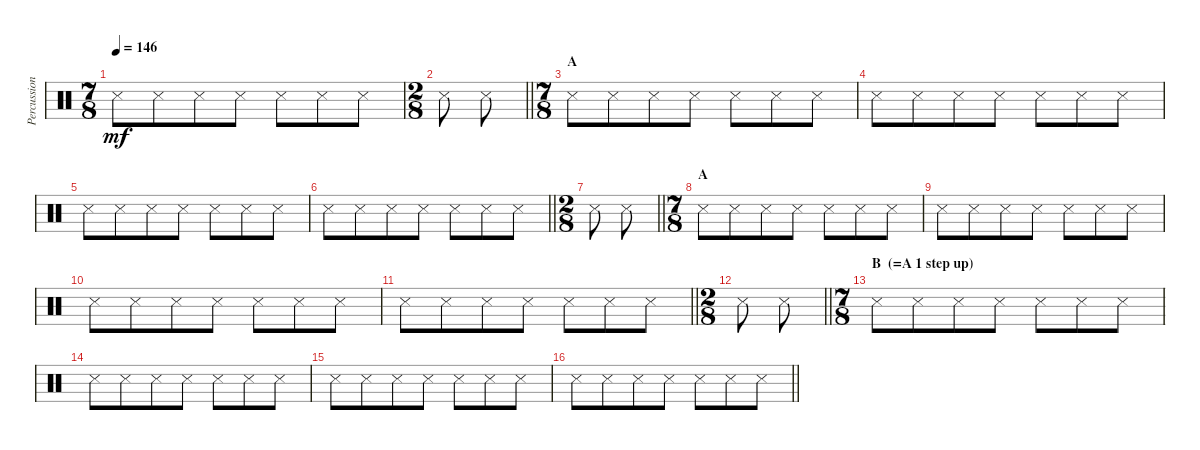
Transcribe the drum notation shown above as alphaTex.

\track ("Percussion" "Percussion") {instrument percussion}
\staff {score}
\articulation defaults
\ts (7 8)
\tempo 146
\clef neutral
\ks c "Metronome (hit)".8{dy mf} "Metronome (hit)".8 "Metronome (hit)".8 "Metronome (hit)".8 "Metronome (hit)".8 "Metronome (hit)".8 "Metronome (hit)".8
|
\ts (2 8)
\barLineRight lightlight "Metronome (hit)".8 "Metronome (hit)".8
|
\ts (7 8)
\section ("" "A")
"Metronome (hit)".8 "Metronome (hit)".8 "Metronome (hit)".8 "Metronome (hit)".8 "Metronome (hit)".8 "Metronome (hit)".8 "Metronome (hit)".8 |
"Metronome (hit)".8 "Metronome (hit)".8 "Metronome (hit)".8 "Metronome (hit)".8 "Metronome (hit)".8 "Metronome (hit)".8 "Metronome (hit)".8 |
"Metronome (hit)".8 "Metronome (hit)".8 "Metronome (hit)".8 "Metronome (hit)".8 "Metronome (hit)".8 "Metronome (hit)".8 "Metronome (hit)".8 |
\barLineRight lightlight "Metronome (hit)".8 "Metronome (hit)".8 "Metronome (hit)".8 "Metronome (hit)".8 "Metronome (hit)".8 "Metronome (hit)".8 "Metronome (hit)".8
|
\ts (2 8)
\barLineRight lightlight "Metronome (hit)".8 "Metronome (hit)".8
|
\ts (7 8)
\section ("" "A")
"Metronome (hit)".8 "Metronome (hit)".8 "Metronome (hit)".8 "Metronome (hit)".8 "Metronome (hit)".8 "Metronome (hit)".8 "Metronome (hit)".8 |
"Metronome (hit)".8 "Metronome (hit)".8 "Metronome (hit)".8 "Metronome (hit)".8 "Metronome (hit)".8 "Metronome (hit)".8 "Metronome (hit)".8 |
"Metronome (hit)".8 "Metronome (hit)".8 "Metronome (hit)".8 "Metronome (hit)".8 "Metronome (hit)".8 "Metronome (hit)".8 "Metronome (hit)".8 |
\barLineRight lightlight "Metronome (hit)".8 "Metronome (hit)".8 "Metronome (hit)".8 "Metronome (hit)".8 "Metronome (hit)".8 "Metronome (hit)".8 "Metronome (hit)".8
|
\ts (2 8)
\barLineRight lightlight "Metronome (hit)".8 "Metronome (hit)".8
|
\ts (7 8)
\section ("" "B  (=A 1 step up)")
"Metronome (hit)".8 "Metronome (hit)".8 "Metronome (hit)".8 "Metronome (hit)".8 "Metronome (hit)".8 "Metronome (hit)".8 "Metronome (hit)".8 |
"Metronome (hit)".8 "Metronome (hit)".8 "Metronome (hit)".8 "Metronome (hit)".8 "Metronome (hit)".8 "Metronome (hit)".8 "Metronome (hit)".8 |
"Metronome (hit)".8 "Metronome (hit)".8 "Metronome (hit)".8 "Metronome (hit)".8 "Metronome (hit)".8 "Metronome (hit)".8 "Metronome (hit)".8 |
\barLineRight lightlight "Metronome (hit)".8 "Metronome (hit)".8 "Metronome (hit)".8 "Metronome (hit)".8 "Metronome (hit)".8 "Metronome (hit)".8 "Metronome (hit)".8
